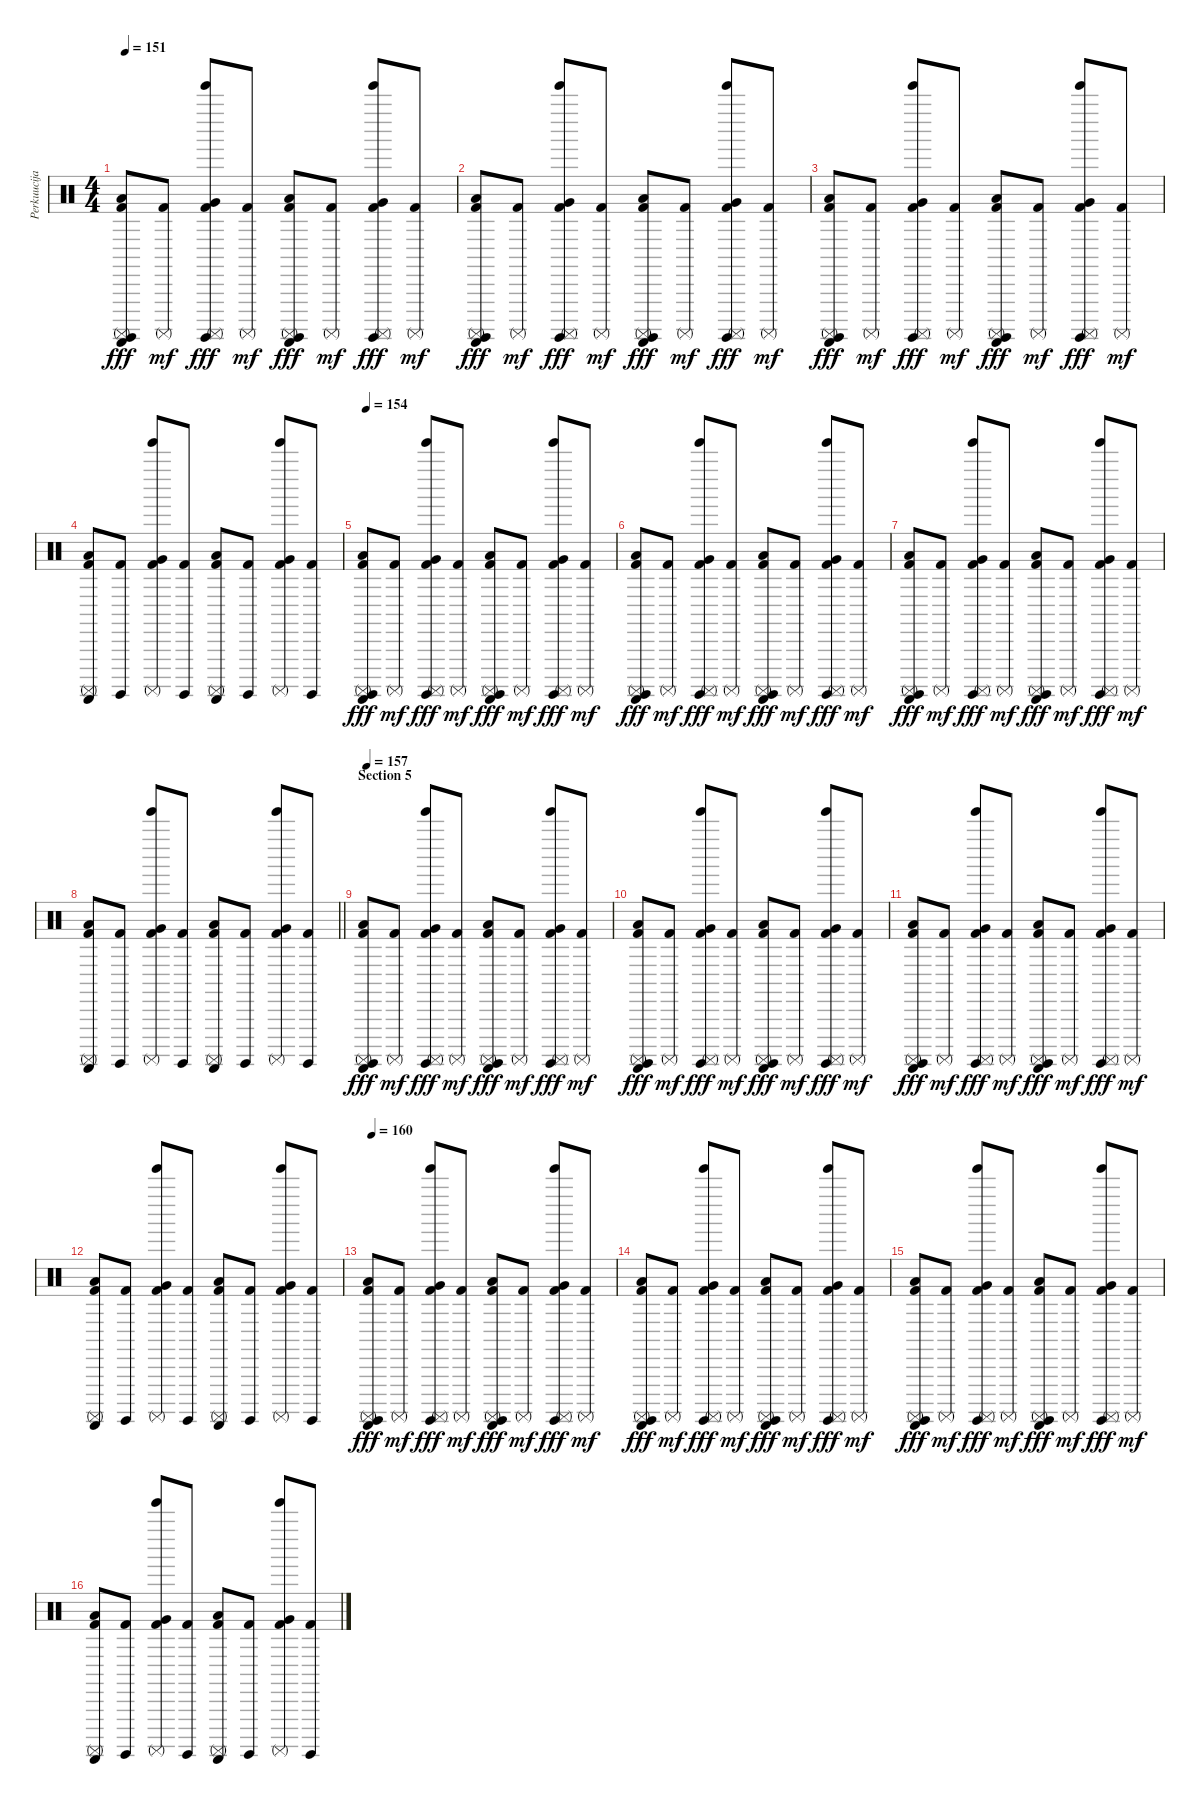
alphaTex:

\track ("Perkuucijas" "Perkuucija") {instrument percussion}
\staff {score}
\articulation defaults
\ts (4 4)
\tempo 151
\clef neutral
\ks c
("Kick (hit) 2" "Guiro (scrap-return)" "Low Floor Tom (hit)" "Surdo (hit)" "Surdo (mute)").8{dy fff} ("Kick (hit) 2" "Surdo (mute)").8{dy mf} ("Kick (hit) 2" "Tinkle Bell (hit)" "Very Low Tom (hit)" "Surdo (hit)" "Surdo (mute)").8{dy fff} ("Kick (hit) 2" "Surdo (mute)").8{dy mf} ("Kick (hit) 2" "Guiro (scrap-return)" "Low Tom (hit)" "Surdo (hit)" "Surdo (mute)").8{dy fff} ("Kick (hit) 2" "Surdo (mute)").8{dy mf} ("Kick (hit) 2" "Tinkle Bell (hit)" "Very Low Tom (hit)" "Surdo (hit)" "Surdo (mute)").8{dy fff} ("Kick (hit) 2" "Surdo (mute)").8{dy mf} |
("Kick (hit) 2" "Guiro (scrap-return)" "Low Floor Tom (hit)" "Surdo (hit)" "Surdo (mute)").8{dy fff} ("Kick (hit) 2" "Surdo (mute)").8{dy mf} ("Kick (hit) 2" "Tinkle Bell (hit)" "Very Low Tom (hit)" "Surdo (hit)" "Surdo (mute)").8{dy fff} ("Kick (hit) 2" "Surdo (mute)").8{dy mf} ("Kick (hit) 2" "Guiro (scrap-return)" "Low Tom (hit)" "Surdo (hit)" "Surdo (mute)").8{dy fff} ("Kick (hit) 2" "Surdo (mute)").8{dy mf} ("Kick (hit) 2" "Tinkle Bell (hit)" "Very Low Tom (hit)" "Surdo (hit)" "Surdo (mute)").8{dy fff} ("Kick (hit) 2" "Surdo (mute)").8{dy mf} |
("Kick (hit) 2" "Guiro (scrap-return)" "Low Floor Tom (hit)" "Surdo (hit)" "Surdo (mute)").8{dy fff} ("Kick (hit) 2" "Surdo (mute)").8{dy mf} ("Kick (hit) 2" "Tinkle Bell (hit)" "Very Low Tom (hit)" "Surdo (hit)" "Surdo (mute)").8{dy fff} ("Kick (hit) 2" "Surdo (mute)").8{dy mf} ("Kick (hit) 2" "Guiro (scrap-return)" "Low Tom (hit)" "Surdo (hit)" "Surdo (mute)").8{dy fff} ("Kick (hit) 2" "Surdo (mute)").8{dy mf} ("Kick (hit) 2" "Tinkle Bell (hit)" "Very Low Tom (hit)" "Surdo (hit)" "Surdo (mute)").8{dy fff} ("Kick (hit) 2" "Surdo (mute)").8{dy mf} |
("Kick (hit) 2" "Guiro (scrap-return)" "Low Floor Tom (hit)" "Surdo (mute)").8 ("Kick (hit) 2" "Surdo (hit)").8 ("Kick (hit) 2" "Tinkle Bell (hit)" "Very Low Tom (hit)" "Surdo (mute)").8 ("Kick (hit) 2" "Surdo (hit)").8 ("Kick (hit) 2" "Guiro (scrap-return)" "Low Tom (hit)" "Surdo (mute)").8 ("Kick (hit) 2" "Surdo (hit)").8 ("Kick (hit) 2" "Tinkle Bell (hit)" "Very Low Tom (hit)" "Surdo (mute)").8 ("Kick (hit) 2" "Surdo (hit)").8 |
\tempo 154
("Kick (hit) 2" "Guiro (scrap-return)" "Low Floor Tom (hit)" "Surdo (hit)" "Surdo (mute)").8{dy fff} ("Kick (hit) 2" "Surdo (mute)").8{dy mf} ("Kick (hit) 2" "Tinkle Bell (hit)" "Very Low Tom (hit)" "Surdo (hit)" "Surdo (mute)").8{dy fff} ("Kick (hit) 2" "Surdo (mute)").8{dy mf} ("Kick (hit) 2" "Guiro (scrap-return)" "Low Tom (hit)" "Surdo (hit)" "Surdo (mute)").8{dy fff} ("Kick (hit) 2" "Surdo (mute)").8{dy mf} ("Kick (hit) 2" "Tinkle Bell (hit)" "Very Low Tom (hit)" "Surdo (hit)" "Surdo (mute)").8{dy fff} ("Kick (hit) 2" "Surdo (mute)").8{dy mf} |
("Kick (hit) 2" "Guiro (scrap-return)" "Low Floor Tom (hit)" "Surdo (hit)" "Surdo (mute)").8{dy fff} ("Kick (hit) 2" "Surdo (mute)").8{dy mf} ("Kick (hit) 2" "Tinkle Bell (hit)" "Very Low Tom (hit)" "Surdo (hit)" "Surdo (mute)").8{dy fff} ("Kick (hit) 2" "Surdo (mute)").8{dy mf} ("Kick (hit) 2" "Guiro (scrap-return)" "Low Tom (hit)" "Surdo (hit)" "Surdo (mute)").8{dy fff} ("Kick (hit) 2" "Surdo (mute)").8{dy mf} ("Kick (hit) 2" "Tinkle Bell (hit)" "Very Low Tom (hit)" "Surdo (hit)" "Surdo (mute)").8{dy fff} ("Kick (hit) 2" "Surdo (mute)").8{dy mf} |
("Kick (hit) 2" "Guiro (scrap-return)" "Low Floor Tom (hit)" "Surdo (hit)" "Surdo (mute)").8{dy fff} ("Kick (hit) 2" "Surdo (mute)").8{dy mf} ("Kick (hit) 2" "Tinkle Bell (hit)" "Very Low Tom (hit)" "Surdo (hit)" "Surdo (mute)").8{dy fff} ("Kick (hit) 2" "Surdo (mute)").8{dy mf} ("Kick (hit) 2" "Guiro (scrap-return)" "Low Tom (hit)" "Surdo (hit)" "Surdo (mute)").8{dy fff} ("Kick (hit) 2" "Surdo (mute)").8{dy mf} ("Kick (hit) 2" "Tinkle Bell (hit)" "Very Low Tom (hit)" "Surdo (hit)" "Surdo (mute)").8{dy fff} ("Kick (hit) 2" "Surdo (mute)").8{dy mf} |
\barLineRight lightlight
("Kick (hit) 2" "Guiro (scrap-return)" "Low Floor Tom (hit)" "Surdo (mute)").8 ("Kick (hit) 2" "Surdo (hit)").8 ("Kick (hit) 2" "Tinkle Bell (hit)" "Very Low Tom (hit)" "Surdo (mute)").8 ("Kick (hit) 2" "Surdo (hit)").8 ("Kick (hit) 2" "Guiro (scrap-return)" "Low Tom (hit)" "Surdo (mute)").8 ("Kick (hit) 2" "Surdo (hit)").8 ("Kick (hit) 2" "Tinkle Bell (hit)" "Very Low Tom (hit)" "Surdo (mute)").8 ("Kick (hit) 2" "Surdo (hit)").8 |
\section ("" "Section 5")
\tempo 157
("Kick (hit) 2" "Guiro (scrap-return)" "Low Floor Tom (hit)" "Surdo (hit)" "Surdo (mute)").8{dy fff} ("Kick (hit) 2" "Surdo (mute)").8{dy mf} ("Kick (hit) 2" "Tinkle Bell (hit)" "Very Low Tom (hit)" "Surdo (hit)" "Surdo (mute)").8{dy fff} ("Kick (hit) 2" "Surdo (mute)").8{dy mf} ("Kick (hit) 2" "Guiro (scrap-return)" "Low Tom (hit)" "Surdo (hit)" "Surdo (mute)").8{dy fff} ("Kick (hit) 2" "Surdo (mute)").8{dy mf} ("Kick (hit) 2" "Tinkle Bell (hit)" "Very Low Tom (hit)" "Surdo (hit)" "Surdo (mute)").8{dy fff} ("Kick (hit) 2" "Surdo (mute)").8{dy mf} |
("Kick (hit) 2" "Guiro (scrap-return)" "Low Floor Tom (hit)" "Surdo (hit)" "Surdo (mute)").8{dy fff} ("Kick (hit) 2" "Surdo (mute)").8{dy mf} ("Kick (hit) 2" "Tinkle Bell (hit)" "Very Low Tom (hit)" "Surdo (hit)" "Surdo (mute)").8{dy fff} ("Kick (hit) 2" "Surdo (mute)").8{dy mf} ("Kick (hit) 2" "Guiro (scrap-return)" "Low Tom (hit)" "Surdo (hit)" "Surdo (mute)").8{dy fff} ("Kick (hit) 2" "Surdo (mute)").8{dy mf} ("Kick (hit) 2" "Tinkle Bell (hit)" "Very Low Tom (hit)" "Surdo (hit)" "Surdo (mute)").8{dy fff} ("Kick (hit) 2" "Surdo (mute)").8{dy mf} |
("Kick (hit) 2" "Guiro (scrap-return)" "Low Floor Tom (hit)" "Surdo (hit)" "Surdo (mute)").8{dy fff} ("Kick (hit) 2" "Surdo (mute)").8{dy mf} ("Kick (hit) 2" "Tinkle Bell (hit)" "Very Low Tom (hit)" "Surdo (hit)" "Surdo (mute)").8{dy fff} ("Kick (hit) 2" "Surdo (mute)").8{dy mf} ("Kick (hit) 2" "Guiro (scrap-return)" "Low Tom (hit)" "Surdo (hit)" "Surdo (mute)").8{dy fff} ("Kick (hit) 2" "Surdo (mute)").8{dy mf} ("Kick (hit) 2" "Tinkle Bell (hit)" "Very Low Tom (hit)" "Surdo (hit)" "Surdo (mute)").8{dy fff} ("Kick (hit) 2" "Surdo (mute)").8{dy mf} |
("Kick (hit) 2" "Guiro (scrap-return)" "Low Floor Tom (hit)" "Surdo (mute)").8 ("Kick (hit) 2" "Surdo (hit)").8 ("Kick (hit) 2" "Tinkle Bell (hit)" "Very Low Tom (hit)" "Surdo (mute)").8 ("Kick (hit) 2" "Surdo (hit)").8 ("Kick (hit) 2" "Guiro (scrap-return)" "Low Tom (hit)" "Surdo (mute)").8 ("Kick (hit) 2" "Surdo (hit)").8 ("Kick (hit) 2" "Tinkle Bell (hit)" "Very Low Tom (hit)" "Surdo (mute)").8 ("Kick (hit) 2" "Surdo (hit)").8 |
\tempo 160
("Kick (hit) 2" "Guiro (scrap-return)" "Low Floor Tom (hit)" "Surdo (hit)" "Surdo (mute)").8{dy fff} ("Kick (hit) 2" "Surdo (mute)").8{dy mf} ("Kick (hit) 2" "Tinkle Bell (hit)" "Very Low Tom (hit)" "Surdo (hit)" "Surdo (mute)").8{dy fff} ("Kick (hit) 2" "Surdo (mute)").8{dy mf} ("Kick (hit) 2" "Guiro (scrap-return)" "Low Tom (hit)" "Surdo (hit)" "Surdo (mute)").8{dy fff} ("Kick (hit) 2" "Surdo (mute)").8{dy mf} ("Kick (hit) 2" "Tinkle Bell (hit)" "Very Low Tom (hit)" "Surdo (hit)" "Surdo (mute)").8{dy fff} ("Kick (hit) 2" "Surdo (mute)").8{dy mf} |
("Kick (hit) 2" "Guiro (scrap-return)" "Low Floor Tom (hit)" "Surdo (hit)" "Surdo (mute)").8{dy fff} ("Kick (hit) 2" "Surdo (mute)").8{dy mf} ("Kick (hit) 2" "Tinkle Bell (hit)" "Very Low Tom (hit)" "Surdo (hit)" "Surdo (mute)").8{dy fff} ("Kick (hit) 2" "Surdo (mute)").8{dy mf} ("Kick (hit) 2" "Guiro (scrap-return)" "Low Tom (hit)" "Surdo (hit)" "Surdo (mute)").8{dy fff} ("Kick (hit) 2" "Surdo (mute)").8{dy mf} ("Kick (hit) 2" "Tinkle Bell (hit)" "Very Low Tom (hit)" "Surdo (hit)" "Surdo (mute)").8{dy fff} ("Kick (hit) 2" "Surdo (mute)").8{dy mf} |
("Kick (hit) 2" "Guiro (scrap-return)" "Low Floor Tom (hit)" "Surdo (hit)" "Surdo (mute)").8{dy fff} ("Kick (hit) 2" "Surdo (mute)").8{dy mf} ("Kick (hit) 2" "Tinkle Bell (hit)" "Very Low Tom (hit)" "Surdo (hit)" "Surdo (mute)").8{dy fff} ("Kick (hit) 2" "Surdo (mute)").8{dy mf} ("Kick (hit) 2" "Guiro (scrap-return)" "Low Tom (hit)" "Surdo (hit)" "Surdo (mute)").8{dy fff} ("Kick (hit) 2" "Surdo (mute)").8{dy mf} ("Kick (hit) 2" "Tinkle Bell (hit)" "Very Low Tom (hit)" "Surdo (hit)" "Surdo (mute)").8{dy fff} ("Kick (hit) 2" "Surdo (mute)").8{dy mf} |
("Kick (hit) 2" "Guiro (scrap-return)" "Low Floor Tom (hit)" "Surdo (mute)").8 ("Kick (hit) 2" "Surdo (hit)").8 ("Kick (hit) 2" "Tinkle Bell (hit)" "Very Low Tom (hit)" "Surdo (mute)").8 ("Kick (hit) 2" "Surdo (hit)").8 ("Kick (hit) 2" "Guiro (scrap-return)" "Low Tom (hit)" "Surdo (mute)").8 ("Kick (hit) 2" "Surdo (hit)").8 ("Kick (hit) 2" "Tinkle Bell (hit)" "Very Low Tom (hit)" "Surdo (mute)").8 ("Kick (hit) 2" "Surdo (hit)").8
